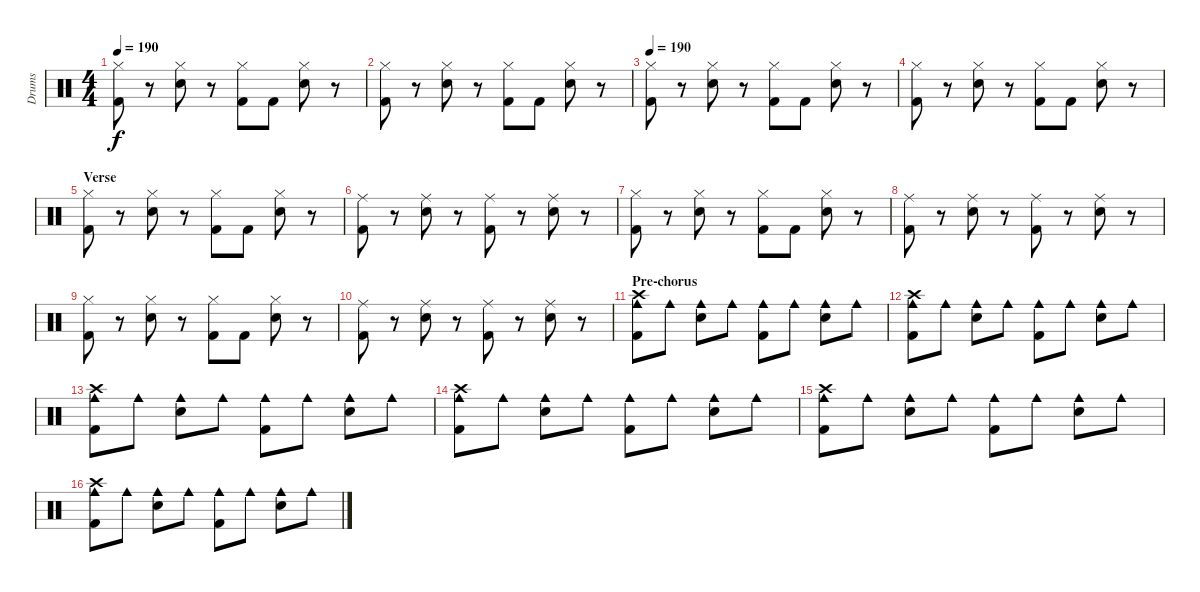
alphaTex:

\track ("Drums" "Drums") {instrument percussion}
\staff {score}
\articulation defaults
\ts (4 4)
\tempo 190
\clef neutral
\ks c
("Hi-Hat (closed)" "Kick (hit) 2").8{dy f} r.8 ("Hi-Hat (closed)" "Electric Snare (hit)").8 r.8 ("Hi-Hat (closed)" "Kick (hit) 2").8 "Kick (hit) 2".8 ("Hi-Hat (closed)" "Electric Snare (hit)").8 r.8 |
("Hi-Hat (closed)" "Kick (hit) 2").8 r.8 ("Hi-Hat (closed)" "Electric Snare (hit)").8 r.8 ("Hi-Hat (closed)" "Kick (hit) 2").8 "Kick (hit) 2".8 ("Hi-Hat (closed)" "Electric Snare (hit)").8 r.8 |
\tempo 190
("Hi-Hat (closed)" "Kick (hit) 2").8 r.8 ("Hi-Hat (closed)" "Electric Snare (hit)").8 r.8 ("Hi-Hat (closed)" "Kick (hit) 2").8 "Kick (hit) 2".8 ("Hi-Hat (closed)" "Electric Snare (hit)").8 r.8 |
("Hi-Hat (closed)" "Kick (hit) 2").8 r.8 ("Hi-Hat (closed)" "Electric Snare (hit)").8 r.8 ("Hi-Hat (closed)" "Kick (hit) 2").8 "Kick (hit) 2".8 ("Hi-Hat (closed)" "Electric Snare (hit)").8 r.8 |
\section ("" "Verse")
("Hi-Hat (closed)" "Kick (hit) 2").8 r.8 ("Hi-Hat (closed)" "Electric Snare (hit)").8 r.8 ("Hi-Hat (closed)" "Kick (hit) 2").8 "Kick (hit) 2".8 ("Hi-Hat (closed)" "Electric Snare (hit)").8 r.8 |
("Ride (middle)" "Kick (hit) 2").8 r.8 ("Ride (middle)" "Electric Snare (hit)").8 r.8 ("Ride (middle)" "Kick (hit) 2").8 r.8 ("Ride (middle)" "Electric Snare (hit)").8 r.8 |
("Hi-Hat (closed)" "Kick (hit) 2").8 r.8 ("Hi-Hat (closed)" "Electric Snare (hit)").8 r.8 ("Hi-Hat (closed)" "Kick (hit) 2").8 "Kick (hit) 2".8 ("Hi-Hat (closed)" "Electric Snare (hit)").8 r.8 |
("Ride (middle)" "Kick (hit) 2").8 r.8 ("Ride (middle)" "Electric Snare (hit)").8 r.8 ("Ride (middle)" "Kick (hit) 2").8 r.8 ("Ride (middle)" "Electric Snare (hit)").8 r.8 |
("Hi-Hat (closed)" "Kick (hit) 2").8 r.8 ("Hi-Hat (closed)" "Electric Snare (hit)").8 r.8 ("Hi-Hat (closed)" "Kick (hit) 2").8 "Kick (hit) 2".8 ("Hi-Hat (closed)" "Electric Snare (hit)").8 r.8 |
("Ride (middle)" "Kick (hit) 2").8 r.8 ("Ride (middle)" "Electric Snare (hit)").8 r.8 ("Ride (middle)" "Kick (hit) 2").8 r.8 ("Ride (middle)" "Electric Snare (hit)").8 r.8 |
\section ("" "Pre-chorus")
("Crash high (hit)" "Cowbell medium (hit)" "Kick (hit) 2").8 "Cowbell medium (hit)".8 ("Cowbell medium (hit)" "Electric Snare (hit)").8 "Cowbell medium (hit)".8 ("Cowbell medium (hit)" "Kick (hit) 2").8 "Cowbell medium (hit)".8 ("Cowbell medium (hit)" "Electric Snare (hit)").8 "Cowbell medium (hit)".8 |
("Crash high (hit)" "Cowbell medium (hit)" "Kick (hit) 2").8 "Cowbell medium (hit)".8 ("Cowbell medium (hit)" "Electric Snare (hit)").8 "Cowbell medium (hit)".8 ("Cowbell medium (hit)" "Kick (hit) 2").8 "Cowbell medium (hit)".8 ("Cowbell medium (hit)" "Electric Snare (hit)").8 "Cowbell medium (hit)".8 |
("Crash high (hit)" "Cowbell medium (hit)" "Kick (hit) 2").8 "Cowbell medium (hit)".8 ("Cowbell medium (hit)" "Electric Snare (hit)").8 "Cowbell medium (hit)".8 ("Cowbell medium (hit)" "Kick (hit) 2").8 "Cowbell medium (hit)".8 ("Cowbell medium (hit)" "Electric Snare (hit)").8 "Cowbell medium (hit)".8 |
("Crash high (hit)" "Cowbell medium (hit)" "Kick (hit) 2").8 "Cowbell medium (hit)".8 ("Cowbell medium (hit)" "Electric Snare (hit)").8 "Cowbell medium (hit)".8 ("Cowbell medium (hit)" "Kick (hit) 2").8 "Cowbell medium (hit)".8 ("Cowbell medium (hit)" "Electric Snare (hit)").8 "Cowbell medium (hit)".8 |
("Crash high (hit)" "Cowbell medium (hit)" "Kick (hit) 2").8 "Cowbell medium (hit)".8 ("Cowbell medium (hit)" "Electric Snare (hit)").8 "Cowbell medium (hit)".8 ("Cowbell medium (hit)" "Kick (hit) 2").8 "Cowbell medium (hit)".8 ("Cowbell medium (hit)" "Electric Snare (hit)").8 "Cowbell medium (hit)".8 |
("Crash high (hit)" "Cowbell medium (hit)" "Kick (hit) 2").8 "Cowbell medium (hit)".8 ("Cowbell medium (hit)" "Electric Snare (hit)").8 "Cowbell medium (hit)".8 ("Cowbell medium (hit)" "Kick (hit) 2").8 "Cowbell medium (hit)".8 ("Cowbell medium (hit)" "Electric Snare (hit)").8 "Cowbell medium (hit)".8
